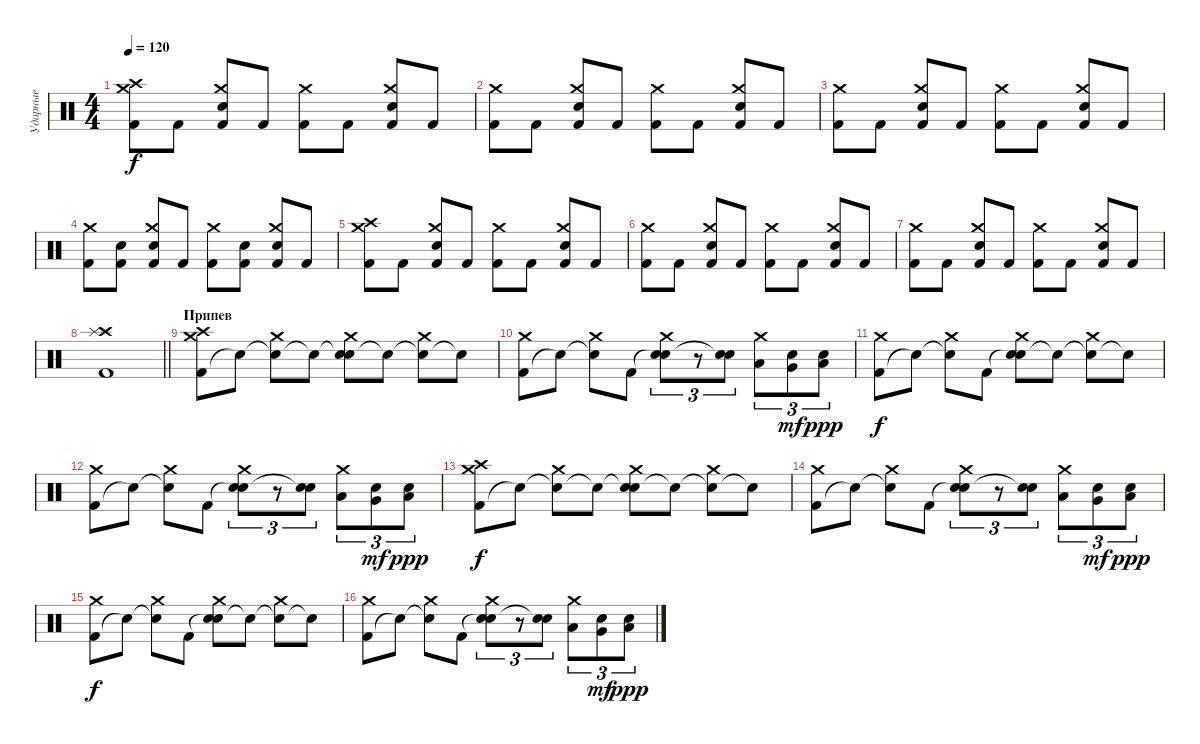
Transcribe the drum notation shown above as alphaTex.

\track ("Ударные" "Ударные") {instrument percussion}
\staff {score}
\articulation defaults
\ts (4 4)
\tempo 120
\clef neutral
\ks c
("Kick (hit) 2" "Crash medium (hit)" "Crash high (hit)").8{dy f} "Kick (hit) 2".8 ("Kick (hit) 2" "Crash medium (hit)" "Electric Snare (hit)").8 "Kick (hit) 2".8 ("Kick (hit) 2" "Crash medium (hit)").8 "Kick (hit) 2".8 ("Kick (hit) 2" "Crash medium (hit)" "Electric Snare (hit)").8 "Kick (hit) 2".8 |
("Kick (hit) 2" "Crash medium (hit)").8 "Kick (hit) 2".8 ("Kick (hit) 2" "Crash medium (hit)" "Electric Snare (hit)").8 "Kick (hit) 2".8 ("Kick (hit) 2" "Crash medium (hit)").8 "Kick (hit) 2".8 ("Kick (hit) 2" "Crash medium (hit)" "Electric Snare (hit)").8 "Kick (hit) 2".8 |
("Kick (hit) 2" "Crash medium (hit)").8 "Kick (hit) 2".8 ("Kick (hit) 2" "Crash medium (hit)" "Electric Snare (hit)").8 "Kick (hit) 2".8 ("Kick (hit) 2" "Crash medium (hit)").8 "Kick (hit) 2".8 ("Kick (hit) 2" "Crash medium (hit)" "Electric Snare (hit)").8 "Kick (hit) 2".8 |
("Kick (hit) 2" "Crash medium (hit)").8 ("Kick (hit) 2" "Electric Snare (hit)").8 ("Kick (hit) 2" "Crash medium (hit)" "Electric Snare (hit)").8 "Kick (hit) 2".8 ("Kick (hit) 2" "Crash medium (hit)").8 ("Kick (hit) 2" "Electric Snare (hit)").8 ("Kick (hit) 2" "Crash medium (hit)" "Electric Snare (hit)").8 "Kick (hit) 2".8 |
("Kick (hit) 2" "Crash medium (hit)" "Crash high (hit)").8 "Kick (hit) 2".8 ("Kick (hit) 2" "Crash medium (hit)" "Electric Snare (hit)").8 "Kick (hit) 2".8 ("Kick (hit) 2" "Crash medium (hit)").8 "Kick (hit) 2".8 ("Kick (hit) 2" "Crash medium (hit)" "Electric Snare (hit)").8 "Kick (hit) 2".8 |
("Kick (hit) 2" "Crash medium (hit)").8 "Kick (hit) 2".8 ("Kick (hit) 2" "Crash medium (hit)" "Electric Snare (hit)").8 "Kick (hit) 2".8 ("Kick (hit) 2" "Crash medium (hit)").8 "Kick (hit) 2".8 ("Kick (hit) 2" "Crash medium (hit)" "Electric Snare (hit)").8 "Kick (hit) 2".8 |
("Kick (hit) 2" "Crash medium (hit)").8 "Kick (hit) 2".8 ("Kick (hit) 2" "Crash medium (hit)" "Electric Snare (hit)").8 "Kick (hit) 2".8 ("Kick (hit) 2" "Crash medium (hit)").8 "Kick (hit) 2".8 ("Kick (hit) 2" "Crash medium (hit)" "Electric Snare (hit)").8 "Kick (hit) 2".8 |
\barLineRight lightlight
("Kick (hit) 2" "Crash high (hit)" "Splash (hit)").1 |
\section ("" "Припев")
("Kick (hit) 2" "Crash medium (hit)" "Crash high (hit)").8 "Snare (hit)"{t}.8 ("Snare (hit)"{t} "Crash medium (hit)").8 "Snare (hit)"{t}.8 ("Snare (hit)"{t} "Crash medium (hit)" "Electric Snare (hit)").8 "Snare (hit)"{t}.8 ("Snare (hit)"{t} "Crash medium (hit)").8 "Snare (hit)"{t}.8 |
("Kick (hit) 2" "Crash medium (hit)").8 "Snare (hit)"{t}.8 ("Snare (hit)"{t} "Crash medium (hit)").8 "Kick (hit) 2".8 ("Snare (hit)"{t} "Crash medium (hit)" "Electric Snare (hit)").8{tu (3 2)} r.8{tu (3 2)} ("Snare (hit)"{t} "Electric Snare (hit)").8{tu (3 2)} ("Low Tom (hit)" "Crash medium (hit)").8{tu (3 2)} ("Very Low Tom (hit)" "Electric Snare (hit)").8{tu (3 2) dy mf} ("Low Floor Tom (hit)" "Electric Snare (hit)").8{tu (3 2) dy ppp} |
("Kick (hit) 2" "Crash medium (hit)").8{dy f} "Snare (hit)"{t}.8 ("Snare (hit)"{t} "Crash medium (hit)").8 "Kick (hit) 2".8 ("Snare (hit)"{t} "Crash medium (hit)" "Electric Snare (hit)").8 "Snare (hit)"{t}.8 ("Snare (hit)"{t} "Crash medium (hit)").8 "Snare (hit)"{t}.8 |
("Kick (hit) 2" "Crash medium (hit)").8 "Snare (hit)"{t}.8 ("Snare (hit)"{t} "Crash medium (hit)").8 "Kick (hit) 2".8 ("Snare (hit)"{t} "Crash medium (hit)" "Electric Snare (hit)").8{tu (3 2)} r.8{tu (3 2)} ("Snare (hit)"{t} "Electric Snare (hit)").8{tu (3 2)} ("Low Tom (hit)" "Crash medium (hit)").8{tu (3 2)} ("Very Low Tom (hit)" "Electric Snare (hit)").8{tu (3 2) dy mf} ("Low Floor Tom (hit)" "Electric Snare (hit)").8{tu (3 2) dy ppp} |
("Kick (hit) 2" "Crash medium (hit)" "Crash high (hit)").8{dy f} "Snare (hit)"{t}.8 ("Snare (hit)"{t} "Crash medium (hit)").8 "Snare (hit)"{t}.8 ("Snare (hit)"{t} "Crash medium (hit)" "Electric Snare (hit)").8 "Snare (hit)"{t}.8 ("Snare (hit)"{t} "Crash medium (hit)").8 "Snare (hit)"{t}.8 |
("Kick (hit) 2" "Crash medium (hit)").8 "Snare (hit)"{t}.8 ("Snare (hit)"{t} "Crash medium (hit)").8 "Kick (hit) 2".8 ("Snare (hit)"{t} "Crash medium (hit)" "Electric Snare (hit)").8{tu (3 2)} r.8{tu (3 2)} ("Snare (hit)"{t} "Electric Snare (hit)").8{tu (3 2)} ("Low Tom (hit)" "Crash medium (hit)").8{tu (3 2)} ("Very Low Tom (hit)" "Electric Snare (hit)").8{tu (3 2) dy mf} ("Low Floor Tom (hit)" "Electric Snare (hit)").8{tu (3 2) dy ppp} |
("Kick (hit) 2" "Crash medium (hit)").8{dy f} "Snare (hit)"{t}.8 ("Snare (hit)"{t} "Crash medium (hit)").8 "Kick (hit) 2".8 ("Snare (hit)"{t} "Crash medium (hit)" "Electric Snare (hit)").8 "Snare (hit)"{t}.8 ("Snare (hit)"{t} "Crash medium (hit)").8 "Snare (hit)"{t}.8 |
("Kick (hit) 2" "Crash medium (hit)").8 "Snare (hit)"{t}.8 ("Snare (hit)"{t} "Crash medium (hit)").8 "Kick (hit) 2".8 ("Snare (hit)"{t} "Crash medium (hit)" "Electric Snare (hit)").8{tu (3 2)} r.8{tu (3 2)} ("Snare (hit)"{t} "Electric Snare (hit)").8{tu (3 2)} ("Low Tom (hit)" "Crash medium (hit)").8{tu (3 2)} ("Very Low Tom (hit)" "Electric Snare (hit)").8{tu (3 2) dy mf} ("Low Floor Tom (hit)" "Electric Snare (hit)").8{tu (3 2) dy ppp}
